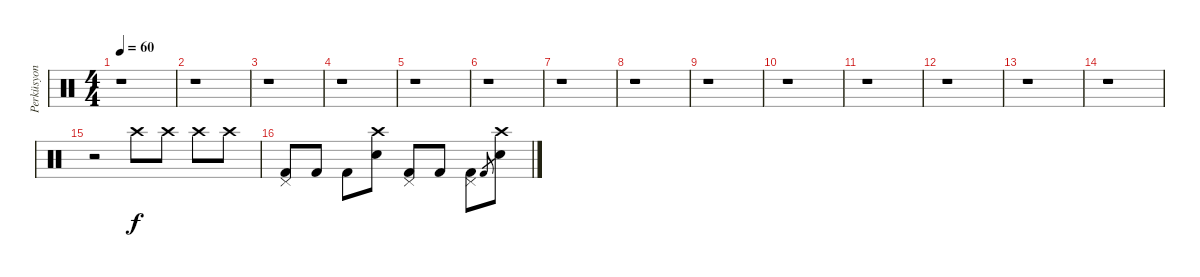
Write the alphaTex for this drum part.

\track ("Perküsyon" "Perküsyon") {instrument percussion}
\staff {score}
\articulation defaults
\ts (4 4)
\tempo 60
\clef neutral
\ks c
r.1{dy f} |
r.1 |
r.1 |
r.1 |
r.1 |
r.1 |
r.1 |
r.1 |
r.1 |
r.1 |
r.1 |
r.1 |
r.1 |
r.1 |
r.2 "Crash high (hit)".8 "Crash high (hit)".8 "Crash high (hit)".8 "Crash high (hit)".8 |
("Kick (hit) 2" "Pedal Hi-Hat (hit)").8 "Kick (hit) 2".8 "Kick (hit) 2".8 ("Snare (hit) 2" "Crash high (hit)").8 ("Kick (hit) 2" "Pedal Hi-Hat (hit)").8 "Kick (hit) 2".8 ("Kick (hit) 2" "Pedal Hi-Hat (hit)").8 "Kick (hit) 2".8{gr} ("Snare (hit) 2" "Crash high (hit)").8
